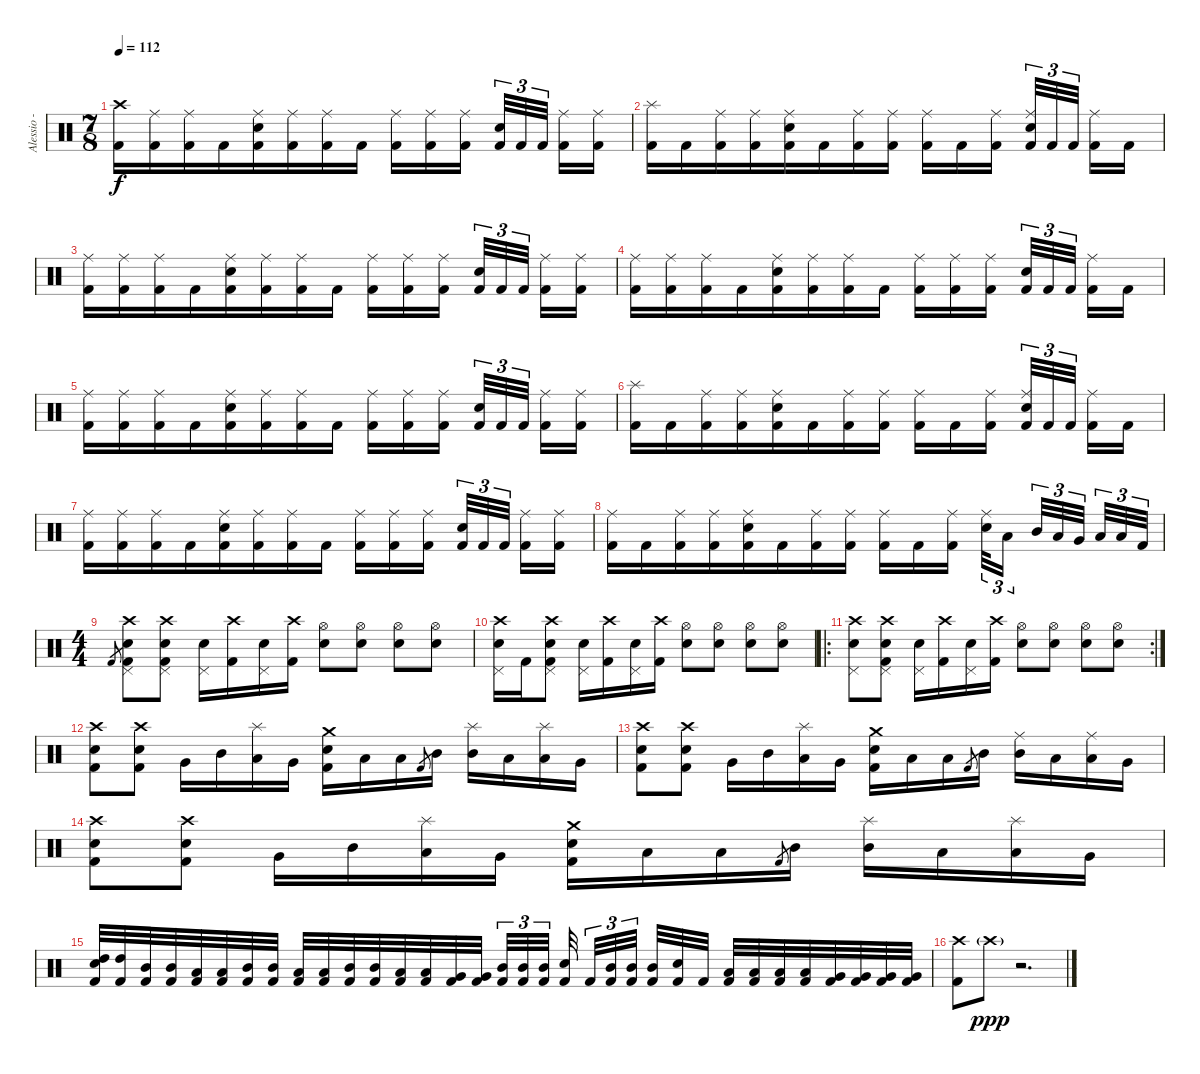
\track ("Alessio - Drums" "Alessio - ") {instrument percussion}
\staff {score}
\articulation defaults
\ts (7 8)
\tempo 112
\clef neutral
\ks c
("Crash high (hit)" "Kick (hit) 2").16{dy f} ("Ride (middle)" "Kick (hit) 2").16 ("Ride (middle)" "Kick (hit) 2").16 "Kick (hit) 2".16 ("Ride (middle)" "Electric Snare (hit)" "Kick (hit) 2").16 ("Ride (middle)" "Kick (hit) 2").16 ("Ride (middle)" "Kick (hit) 2").16 "Kick (hit) 2".16 ("Ride (middle)" "Kick (hit) 2").16 ("Ride (middle)" "Kick (hit) 2").16 ("Ride (middle)" "Kick (hit) 2").16 ("Electric Snare (hit)" "Kick (hit) 2").32{tu (3 2)} "Kick (hit) 2".32{tu (3 2)} "Kick (hit) 2".32{tu (3 2)} ("Ride (middle)" "Kick (hit) 2").16 ("Ride (middle)" "Kick (hit) 2").16 |
("Splash (hit)" "Kick (hit) 2").16 "Kick (hit) 2".16 ("Ride (middle)" "Kick (hit) 2").16 ("Ride (middle)" "Kick (hit) 2").16 ("Ride (middle)" "Electric Snare (hit)" "Kick (hit) 2").16 "Kick (hit) 2".16 ("Ride (middle)" "Kick (hit) 2").16 ("Ride (middle)" "Kick (hit) 2").16 ("Ride (middle)" "Kick (hit) 2").16 "Kick (hit) 2".16 ("Ride (middle)" "Kick (hit) 2").16 ("Ride (middle)" "Electric Snare (hit)" "Kick (hit) 2").32{tu (3 2)} "Kick (hit) 2".32{tu (3 2)} "Kick (hit) 2".32{tu (3 2)} ("Ride (middle)" "Kick (hit) 2").16 "Kick (hit) 2".16 |
("Ride (middle)" "Kick (hit) 2").16 ("Ride (middle)" "Kick (hit) 2").16 ("Ride (middle)" "Kick (hit) 2").16 "Kick (hit) 2".16 ("Ride (middle)" "Electric Snare (hit)" "Kick (hit) 2").16 ("Ride (middle)" "Kick (hit) 2").16 ("Ride (middle)" "Kick (hit) 2").16 "Kick (hit) 2".16 ("Ride (middle)" "Kick (hit) 2").16 ("Ride (middle)" "Kick (hit) 2").16 ("Ride (middle)" "Kick (hit) 2").16 ("Electric Snare (hit)" "Kick (hit) 2").32{tu (3 2)} "Kick (hit) 2".32{tu (3 2)} "Kick (hit) 2".32{tu (3 2)} ("Ride (middle)" "Kick (hit) 2").16 ("Ride (middle)" "Kick (hit) 2").16 |
("Ride (middle)" "Kick (hit) 2").16 ("Ride (middle)" "Kick (hit) 2").16 ("Ride (middle)" "Kick (hit) 2").16 "Kick (hit) 2".16 ("Ride (middle)" "Electric Snare (hit)" "Kick (hit) 2").16 ("Ride (middle)" "Kick (hit) 2").16 ("Ride (middle)" "Kick (hit) 2").16 "Kick (hit) 2".16 ("Ride (middle)" "Kick (hit) 2").16 ("Ride (middle)" "Kick (hit) 2").16 ("Ride (middle)" "Kick (hit) 2").16 ("Electric Snare (hit)" "Kick (hit) 2").32{tu (3 2)} "Kick (hit) 2".32{tu (3 2)} "Kick (hit) 2".32{tu (3 2)} ("Ride (middle)" "Kick (hit) 2").16 "Kick (hit) 2".16 |
("Ride (middle)" "Kick (hit) 2").16 ("Ride (middle)" "Kick (hit) 2").16 ("Ride (middle)" "Kick (hit) 2").16 "Kick (hit) 2".16 ("Ride (middle)" "Electric Snare (hit)" "Kick (hit) 2").16 ("Ride (middle)" "Kick (hit) 2").16 ("Ride (middle)" "Kick (hit) 2").16 "Kick (hit) 2".16 ("Ride (middle)" "Kick (hit) 2").16 ("Ride (middle)" "Kick (hit) 2").16 ("Ride (middle)" "Kick (hit) 2").16 ("Electric Snare (hit)" "Kick (hit) 2").32{tu (3 2)} "Kick (hit) 2".32{tu (3 2)} "Kick (hit) 2".32{tu (3 2)} ("Ride (middle)" "Kick (hit) 2").16 ("Ride (middle)" "Kick (hit) 2").16 |
("Splash (hit)" "Kick (hit) 2").16 "Kick (hit) 2".16 ("Ride (middle)" "Kick (hit) 2").16 ("Ride (middle)" "Kick (hit) 2").16 ("Ride (middle)" "Electric Snare (hit)" "Kick (hit) 2").16 "Kick (hit) 2".16 ("Ride (middle)" "Kick (hit) 2").16 ("Ride (middle)" "Kick (hit) 2").16 ("Ride (middle)" "Kick (hit) 2").16 "Kick (hit) 2".16 ("Ride (middle)" "Kick (hit) 2").16 ("Ride (middle)" "Electric Snare (hit)" "Kick (hit) 2").32{tu (3 2)} "Kick (hit) 2".32{tu (3 2)} "Kick (hit) 2".32{tu (3 2)} ("Ride (middle)" "Kick (hit) 2").16 "Kick (hit) 2".16 |
("Ride (middle)" "Kick (hit) 2").16 ("Ride (middle)" "Kick (hit) 2").16 ("Ride (middle)" "Kick (hit) 2").16 "Kick (hit) 2".16 ("Ride (middle)" "Electric Snare (hit)" "Kick (hit) 2").16 ("Ride (middle)" "Kick (hit) 2").16 ("Ride (middle)" "Kick (hit) 2").16 "Kick (hit) 2".16 ("Ride (middle)" "Kick (hit) 2").16 ("Ride (middle)" "Kick (hit) 2").16 ("Ride (middle)" "Kick (hit) 2").16 ("Electric Snare (hit)" "Kick (hit) 2").32{tu (3 2)} "Kick (hit) 2".32{tu (3 2)} "Kick (hit) 2".32{tu (3 2)} ("Ride (middle)" "Kick (hit) 2").16 ("Ride (middle)" "Kick (hit) 2").16 |
("Ride (middle)" "Kick (hit) 2").16 "Kick (hit) 2".16 ("Ride (middle)" "Kick (hit) 2").16 ("Ride (middle)" "Kick (hit) 2").16 ("Ride (middle)" "Electric Snare (hit)" "Kick (hit) 2").16 "Kick (hit) 2".16 ("Ride (middle)" "Kick (hit) 2").16 ("Ride (middle)" "Kick (hit) 2").16 ("Ride (middle)" "Kick (hit) 2").16 "Kick (hit) 2".16 ("Ride (middle)" "Kick (hit) 2").16 ("Ride (middle)" "Electric Snare (hit)").32{tu (3 2)} "Low Tom (hit)".16{tu (3 2)} "Mid Tom (hit)".32{tu (3 2)} "Low Tom (hit)".32{tu (3 2)} "Very Low Tom (hit)".32{tu (3 2)} "Low Floor Tom (hit)".32{tu (3 2)} "Low Floor Tom (hit)".32{tu (3 2)} "Kick (hit) 2".32{tu (3 2)} |
\ts (4 4)
"Kick (hit) 2".8{gr} ("Pedal Hi-Hat (hit)" "Crash high (hit)" "Electric Snare (hit)" "Kick (hit) 2").8 ("Pedal Hi-Hat (hit)" "Crash high (hit)" "Electric Snare (hit)" "Kick (hit) 2").8 ("Pedal Hi-Hat (hit)" "Electric Snare (hit)").16 ("Crash high (hit)" "Kick (hit) 2").16 ("Pedal Hi-Hat (hit)" "Electric Snare (hit)").16 ("Crash high (hit)" "Kick (hit) 2").16 ("Hi-Hat (open)" "Electric Snare (hit)").8 ("Hi-Hat (open)" "Electric Snare (hit)").8 ("Hi-Hat (open)" "Electric Snare (hit)").8 ("Hi-Hat (open)" "Electric Snare (hit)").8 |
("Pedal Hi-Hat (hit)" "Crash high (hit)" "Electric Snare (hit)").16 "Kick (hit) 2".16 ("Pedal Hi-Hat (hit)" "Crash high (hit)" "Electric Snare (hit)" "Kick (hit) 2").8 ("Pedal Hi-Hat (hit)" "Electric Snare (hit)").16 ("Crash high (hit)" "Kick (hit) 2").16 ("Pedal Hi-Hat (hit)" "Electric Snare (hit)").16 ("Crash high (hit)" "Kick (hit) 2").16 ("Hi-Hat (open)" "Electric Snare (hit)").8 ("Hi-Hat (open)" "Electric Snare (hit)").8 ("Hi-Hat (open)" "Electric Snare (hit)").8 ("Hi-Hat (open)" "Electric Snare (hit)").8 |
\ro
\rc 2
("Pedal Hi-Hat (hit)" "Crash high (hit)" "Electric Snare (hit)").8 ("Pedal Hi-Hat (hit)" "Crash high (hit)" "Electric Snare (hit)" "Kick (hit) 2").8 ("Pedal Hi-Hat (hit)" "Electric Snare (hit)").16 ("Crash high (hit)" "Kick (hit) 2").16 ("Pedal Hi-Hat (hit)" "Electric Snare (hit)").16 ("Crash high (hit)" "Kick (hit) 2").16 ("Hi-Hat (open)" "Electric Snare (hit)").8 ("Hi-Hat (open)" "Electric Snare (hit)").8 ("Hi-Hat (open)" "Electric Snare (hit)").8 ("Hi-Hat (open)" "Electric Snare (hit)").8 |
("Crash high (hit)" "Electric Snare (hit)" "Kick (hit) 2").8 ("Crash high (hit)" "Electric Snare (hit)" "Kick (hit) 2").8 "Very Low Tom (hit)".16 "Mid Tom (hit)".16 ("Splash (hit)" "Low Tom (hit)").16 "Very Low Tom (hit)".16 ("Crash medium (hit)" "Electric Snare (hit)" "Kick (hit) 2").16 "Low Floor Tom (hit)".16 "Low Floor Tom (hit)".16 "Kick (hit) 2".8{gr} "Mid Tom (hit)".16 ("Splash (hit)" "Mid Tom (hit)").16 "Low Tom (hit)".16 ("Splash (hit)" "Low Tom (hit)").16 "Very Low Tom (hit)".16 |
("Crash high (hit)" "Electric Snare (hit)" "Kick (hit) 2").8 ("Crash high (hit)" "Electric Snare (hit)" "Kick (hit) 2").8 "Very Low Tom (hit)".16 "Mid Tom (hit)".16 ("Splash (hit)" "Low Tom (hit)").16 "Very Low Tom (hit)".16 ("Crash medium (hit)" "Electric Snare (hit)" "Kick (hit) 2").16 "Low Floor Tom (hit)".16 "Low Floor Tom (hit)".16 "Kick (hit) 2".8{gr} "Mid Tom (hit)".16 ("Ride (middle)" "Mid Tom (hit)").16 "Low Tom (hit)".16 ("Ride (middle)" "Low Tom (hit)").16 "Very Low Tom (hit)".16 |
("Crash high (hit)" "Electric Snare (hit)" "Kick (hit) 2").8 ("Crash high (hit)" "Electric Snare (hit)" "Kick (hit) 2").8 "Very Low Tom (hit)".16 "Mid Tom (hit)".16 ("Splash (hit)" "Low Tom (hit)").16 "Very Low Tom (hit)".16 ("Crash medium (hit)" "Electric Snare (hit)" "Kick (hit) 2").16 "Low Floor Tom (hit)".16 "Low Floor Tom (hit)".16 "Kick (hit) 2".8{gr} "Mid Tom (hit)".16 ("Splash (hit)" "Mid Tom (hit)").16 "Low Tom (hit)".16 ("Splash (hit)" "Low Tom (hit)").16 "Very Low Tom (hit)".16 |
("High Tom (hit)" "Electric Snare (hit)" "Kick (hit) 2").32 ("High Tom (hit)" "Kick (hit) 2").32 ("Mid Tom (hit)" "Kick (hit) 2").32 ("Mid Tom (hit)" "Kick (hit) 2").32 ("Low Tom (hit)" "Kick (hit) 2").32 ("Low Tom (hit)" "Kick (hit) 2").32 ("Mid Tom (hit)" "Kick (hit) 2").32 ("Mid Tom (hit)" "Kick (hit) 2").32 ("Low Tom (hit)" "Kick (hit) 2").32 ("Low Tom (hit)" "Kick (hit) 2").32 ("Mid Tom (hit)" "Kick (hit) 2").32 ("Mid Tom (hit)" "Kick (hit) 2").32 ("Low Tom (hit)" "Kick (hit) 2").32 ("Low Tom (hit)" "Kick (hit) 2").32 ("Very Low Tom (hit)" "Kick (hit) 2").32 ("Very Low Tom (hit)" "Kick (hit) 2").32 ("Mid Tom (hit)" "Kick (hit) 2").32{tu (3 2)} ("Mid Tom (hit)" "Kick (hit) 2").32{tu (3 2)} ("Mid Tom (hit)" "Kick (hit) 2").32{tu (3 2)} ("Electric Snare (hit)" "Kick (hit) 2").32 "Kick (hit) 2".32{tu (3 2)} ("Mid Tom (hit)" "Kick (hit) 2").32{tu (3 2)} ("Mid Tom (hit)" "Kick (hit) 2").32{tu (3 2)} ("Mid Tom (hit)" "Kick (hit) 2").32 ("Electric Snare (hit)" "Kick (hit) 2").32 "Kick (hit) 2".32 ("Low Tom (hit)" "Kick (hit) 2").32 ("Low Tom (hit)" "Kick (hit) 2").32 ("Low Tom (hit)" "Kick (hit) 2").32 ("Low Tom (hit)" "Kick (hit) 2").32 ("Very Low Tom (hit)" "Kick (hit) 2").32 ("Very Low Tom (hit)" "Kick (hit) 2").32 ("Very Low Tom (hit)" "Kick (hit) 2").32 ("Very Low Tom (hit)" "Kick (hit) 2").32 |
("Crash high (hit)" "Kick (hit) 2").8 "Crash high (hit)"{g}.8{dy ppp} r.2{d}
